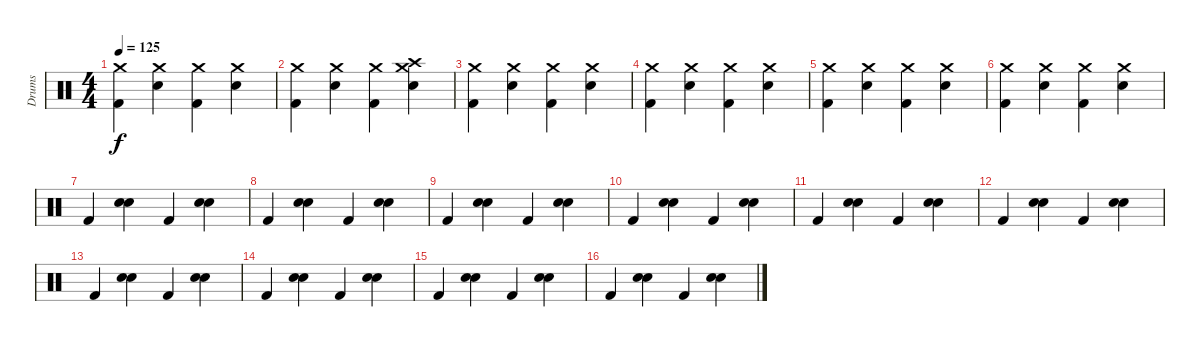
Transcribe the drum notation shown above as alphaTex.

\track ("Drums" "Drums") {instrument percussion}
\staff {score}
\articulation defaults
\ts (4 4)
\tempo 125
\clef neutral
\ks c
("Kick (hit) 2" "Crash medium (hit)").4{dy f} ("Electric Snare (hit)" "Crash medium (hit)").4 ("Kick (hit) 2" "Crash medium (hit)").4 ("Electric Snare (hit)" "Crash medium (hit)").4 |
("Kick (hit) 2" "Crash medium (hit)").4 ("Electric Snare (hit)" "Crash medium (hit)").4 ("Kick (hit) 2" "Crash medium (hit)").4 ("Electric Snare (hit)" "Crash medium (hit)" "Crash high (hit)").4 |
("Kick (hit) 2" "Crash medium (hit)").4 ("Electric Snare (hit)" "Crash medium (hit)").4 ("Kick (hit) 2" "Crash medium (hit)").4 ("Electric Snare (hit)" "Crash medium (hit)").4 |
("Kick (hit) 2" "Crash medium (hit)").4 ("Electric Snare (hit)" "Crash medium (hit)").4 ("Kick (hit) 2" "Crash medium (hit)").4 ("Electric Snare (hit)" "Crash medium (hit)").4 |
("Kick (hit) 2" "Crash medium (hit)").4 ("Electric Snare (hit)" "Crash medium (hit)").4 ("Kick (hit) 2" "Crash medium (hit)").4 ("Electric Snare (hit)" "Crash medium (hit)").4 |
("Kick (hit) 2" "Crash medium (hit)").4 ("Electric Snare (hit)" "Crash medium (hit)").4 ("Kick (hit) 2" "Crash medium (hit)").4 ("Electric Snare (hit)" "Crash medium (hit)").4 |
"Kick (hit) 2".4 ("Electric Snare (hit)" "Hand Clap (hit)").4 "Kick (hit) 2".4 ("Electric Snare (hit)" "Hand Clap (hit)").4 |
"Kick (hit) 2".4 ("Electric Snare (hit)" "Hand Clap (hit)").4 "Kick (hit) 2".4 ("Electric Snare (hit)" "Hand Clap (hit)").4 |
"Kick (hit) 2".4 ("Electric Snare (hit)" "Hand Clap (hit)").4 "Kick (hit) 2".4 ("Electric Snare (hit)" "Hand Clap (hit)").4 |
"Kick (hit) 2".4 ("Electric Snare (hit)" "Hand Clap (hit)").4 "Kick (hit) 2".4 ("Electric Snare (hit)" "Hand Clap (hit)").4 |
"Kick (hit) 2".4 ("Electric Snare (hit)" "Hand Clap (hit)").4 "Kick (hit) 2".4 ("Electric Snare (hit)" "Hand Clap (hit)").4 |
"Kick (hit) 2".4 ("Electric Snare (hit)" "Hand Clap (hit)").4 "Kick (hit) 2".4 ("Electric Snare (hit)" "Hand Clap (hit)").4 |
"Kick (hit) 2".4 ("Electric Snare (hit)" "Hand Clap (hit)").4 "Kick (hit) 2".4 ("Electric Snare (hit)" "Hand Clap (hit)").4 |
"Kick (hit) 2".4 ("Electric Snare (hit)" "Hand Clap (hit)").4 "Kick (hit) 2".4 ("Electric Snare (hit)" "Hand Clap (hit)").4 |
"Kick (hit) 2".4 ("Electric Snare (hit)" "Hand Clap (hit)").4 "Kick (hit) 2".4 ("Electric Snare (hit)" "Hand Clap (hit)").4 |
"Kick (hit) 2".4 ("Electric Snare (hit)" "Hand Clap (hit)").4 "Kick (hit) 2".4 ("Electric Snare (hit)" "Hand Clap (hit)").4
